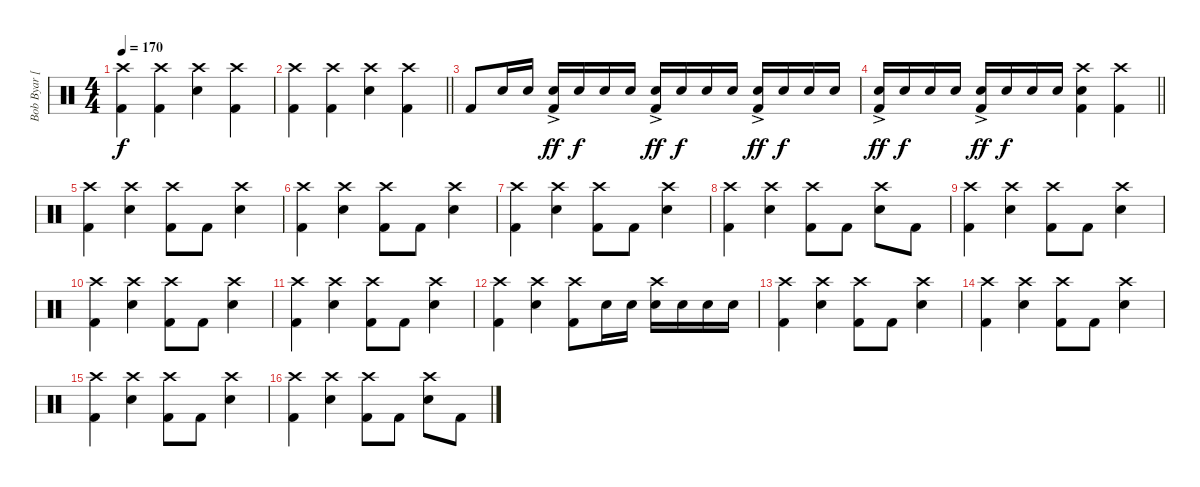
\track ("Bob Byar [Drums]" "Bob Byar [") {instrument percussion}
\staff {score}
\articulation defaults
\ts (4 4)
\tempo 170
\clef neutral
\ks c
("Crash high (hit)" "Kick (hit) 2").4{dy f} ("Crash high (hit)" "Kick (hit) 2").4 ("Crash high (hit)" "Electric Snare (hit)").4 ("Crash high (hit)" "Kick (hit) 2").4 |
\barLineRight lightlight
("Crash high (hit)" "Kick (hit) 2").4 ("Crash high (hit)" "Kick (hit) 2").4 ("Crash high (hit)" "Electric Snare (hit)").4 ("Crash high (hit)" "Kick (hit) 2").4 |
"Kick (hit) 2".8{volume 12} "Electric Snare (hit)".16{volume 15} "Electric Snare (hit)".16 ("Electric Snare (hit)"{ac} "Kick (hit) 2"{ac}).16{dy ff} "Electric Snare (hit)".16{dy f} "Electric Snare (hit)".16 "Electric Snare (hit)".16 ("Electric Snare (hit)"{ac} "Kick (hit) 2"{ac}).16{dy ff} "Electric Snare (hit)".16{dy f} "Electric Snare (hit)".16 "Electric Snare (hit)".16 ("Electric Snare (hit)"{ac} "Kick (hit) 2"{ac}).16{dy ff} "Electric Snare (hit)".16{dy f} "Electric Snare (hit)".16 "Electric Snare (hit)".16 |
\barLineRight lightlight
("Electric Snare (hit)"{ac} "Kick (hit) 2"{ac}).16{dy ff} "Electric Snare (hit)".16{dy f} "Electric Snare (hit)".16 "Electric Snare (hit)".16 ("Electric Snare (hit)"{ac} "Kick (hit) 2"{ac}).16{dy ff} "Electric Snare (hit)".16{dy f} "Electric Snare (hit)".16 "Electric Snare (hit)".16 ("Crash high (hit)" "Electric Snare (hit)" "Kick (hit) 2").4 ("Crash high (hit)" "Kick (hit) 2").4 |
("Crash high (hit)" "Kick (hit) 2").4 ("Crash high (hit)" "Electric Snare (hit)").4 ("Crash high (hit)" "Kick (hit) 2").8 "Kick (hit) 2".8 ("Crash high (hit)" "Electric Snare (hit)").4 |
("Crash high (hit)" "Kick (hit) 2").4 ("Crash high (hit)" "Electric Snare (hit)").4 ("Crash high (hit)" "Kick (hit) 2").8 "Kick (hit) 2".8 ("Crash high (hit)" "Electric Snare (hit)").4 |
("Crash high (hit)" "Kick (hit) 2").4 ("Crash high (hit)" "Electric Snare (hit)").4 ("Crash high (hit)" "Kick (hit) 2").8 "Kick (hit) 2".8 ("Crash high (hit)" "Electric Snare (hit)").4 |
("Crash high (hit)" "Kick (hit) 2").4 ("Crash high (hit)" "Electric Snare (hit)").4 ("Crash high (hit)" "Kick (hit) 2").8 "Kick (hit) 2".8 ("Crash high (hit)" "Electric Snare (hit)").8 "Kick (hit) 2".8 |
("Crash high (hit)" "Kick (hit) 2").4 ("Crash high (hit)" "Electric Snare (hit)").4 ("Crash high (hit)" "Kick (hit) 2").8 "Kick (hit) 2".8 ("Crash high (hit)" "Electric Snare (hit)").4 |
("Crash high (hit)" "Kick (hit) 2").4 ("Crash high (hit)" "Electric Snare (hit)").4 ("Crash high (hit)" "Kick (hit) 2").8 "Kick (hit) 2".8 ("Crash high (hit)" "Electric Snare (hit)").4 |
("Crash high (hit)" "Kick (hit) 2").4 ("Crash high (hit)" "Electric Snare (hit)").4 ("Crash high (hit)" "Kick (hit) 2").8 "Kick (hit) 2".8 ("Crash high (hit)" "Electric Snare (hit)").4 |
("Crash high (hit)" "Kick (hit) 2").4 ("Crash high (hit)" "Electric Snare (hit)").4 ("Crash high (hit)" "Kick (hit) 2").8 "Electric Snare (hit)".16 "Electric Snare (hit)".16 ("Crash high (hit)" "Electric Snare (hit)").16 "Electric Snare (hit)".16 "Electric Snare (hit)".16 "Electric Snare (hit)".16 |
("Crash high (hit)" "Kick (hit) 2").4 ("Crash high (hit)" "Electric Snare (hit)").4 ("Crash high (hit)" "Kick (hit) 2").8 "Kick (hit) 2".8 ("Crash high (hit)" "Electric Snare (hit)").4 |
("Crash high (hit)" "Kick (hit) 2").4 ("Crash high (hit)" "Electric Snare (hit)").4 ("Crash high (hit)" "Kick (hit) 2").8 "Kick (hit) 2".8 ("Crash high (hit)" "Electric Snare (hit)").4 |
("Crash high (hit)" "Kick (hit) 2").4 ("Crash high (hit)" "Electric Snare (hit)").4 ("Crash high (hit)" "Kick (hit) 2").8 "Kick (hit) 2".8 ("Crash high (hit)" "Electric Snare (hit)").4 |
("Crash high (hit)" "Kick (hit) 2").4 ("Crash high (hit)" "Electric Snare (hit)").4 ("Crash high (hit)" "Kick (hit) 2").8 "Kick (hit) 2".8 ("Crash high (hit)" "Electric Snare (hit)").8 "Kick (hit) 2".8
